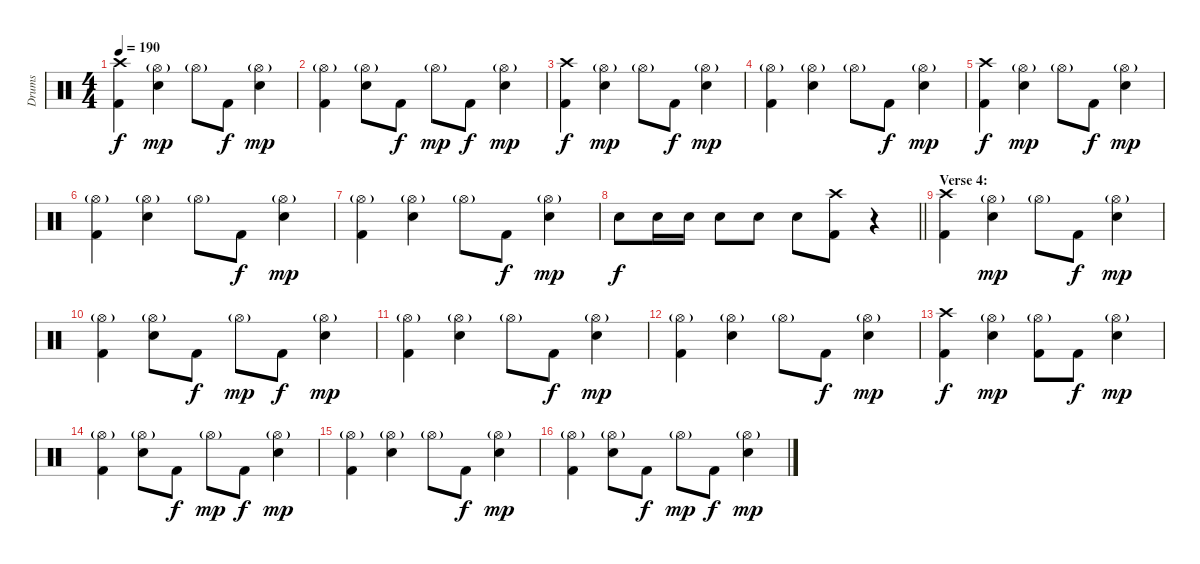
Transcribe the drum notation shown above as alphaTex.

\track ("Drums" "Drums") {instrument percussion}
\staff {score}
\articulation defaults
\ts (4 4)
\tempo 190
\clef neutral
\ks c
("Crash high (hit)" "Kick (hit) 2").4{dy f} ("Hi-Hat (open)"{g} "Electric Snare (hit)").4{dy mp} "Hi-Hat (open)"{g}.8 "Kick (hit) 2".8{dy f} ("Hi-Hat (open)"{g} "Electric Snare (hit)").4{dy mp} |
("Hi-Hat (open)"{g} "Kick (hit) 2").4 ("Hi-Hat (open)"{g} "Electric Snare (hit)").8 "Kick (hit) 2".8{dy f} "Hi-Hat (open)"{g}.8{dy mp} "Kick (hit) 2".8{dy f} ("Hi-Hat (open)"{g} "Electric Snare (hit)").4{dy mp} |
("Crash high (hit)" "Kick (hit) 2").4{dy f} ("Hi-Hat (open)"{g} "Electric Snare (hit)").4{dy mp} "Hi-Hat (open)"{g}.8 "Kick (hit) 2".8{dy f} ("Hi-Hat (open)"{g} "Electric Snare (hit)").4{dy mp} |
("Hi-Hat (open)"{g} "Kick (hit) 2").4 ("Hi-Hat (open)"{g} "Electric Snare (hit)").4 "Hi-Hat (open)"{g}.8 "Kick (hit) 2".8{dy f} ("Hi-Hat (open)"{g} "Electric Snare (hit)").4{dy mp} |
("Crash high (hit)" "Kick (hit) 2").4{dy f} ("Hi-Hat (open)"{g} "Electric Snare (hit)").4{dy mp} "Hi-Hat (open)"{g}.8 "Kick (hit) 2".8{dy f} ("Hi-Hat (open)"{g} "Electric Snare (hit)").4{dy mp} |
("Hi-Hat (open)"{g} "Kick (hit) 2").4 ("Hi-Hat (open)"{g} "Electric Snare (hit)").4 "Hi-Hat (open)"{g}.8 "Kick (hit) 2".8{dy f} ("Hi-Hat (open)"{g} "Electric Snare (hit)").4{dy mp} |
("Hi-Hat (open)"{g} "Kick (hit) 2").4 ("Hi-Hat (open)"{g} "Electric Snare (hit)").4 "Hi-Hat (open)"{g}.8 "Kick (hit) 2".8{dy f} ("Hi-Hat (open)"{g} "Electric Snare (hit)").4{dy mp} |
\barLineRight lightlight "Electric Snare (hit)".8{dy f} "Electric Snare (hit)".16 "Electric Snare (hit)".16 "Electric Snare (hit)".8 "Electric Snare (hit)".8 "Electric Snare (hit)".8
("Crash high (hit)" "Kick (hit) 2").8 r.4 |
\section ("" "Verse 4:")
("Crash high (hit)" "Kick (hit) 2").4 ("Hi-Hat (open)"{g} "Electric Snare (hit)").4{dy mp} "Hi-Hat (open)"{g}.8 "Kick (hit) 2".8{dy f} ("Hi-Hat (open)"{g} "Electric Snare (hit)").4{dy mp} |
("Hi-Hat (open)"{g} "Kick (hit) 2").4 ("Hi-Hat (open)"{g} "Electric Snare (hit)").8 "Kick (hit) 2".8{dy f} "Hi-Hat (open)"{g}.8{dy mp} "Kick (hit) 2".8{dy f} ("Hi-Hat (open)"{g} "Electric Snare (hit)").4{dy mp} |
("Hi-Hat (open)"{g} "Kick (hit) 2").4 ("Hi-Hat (open)"{g} "Electric Snare (hit)").4 "Hi-Hat (open)"{g}.8 "Kick (hit) 2".8{dy f} ("Hi-Hat (open)"{g} "Electric Snare (hit)").4{dy mp} |
("Hi-Hat (open)"{g} "Kick (hit) 2").4 ("Hi-Hat (open)"{g} "Electric Snare (hit)").4 "Hi-Hat (open)"{g}.8 "Kick (hit) 2".8{dy f} ("Hi-Hat (open)"{g} "Electric Snare (hit)").4{dy mp} |
("Crash high (hit)" "Kick (hit) 2").4{dy f} ("Hi-Hat (open)"{g} "Electric Snare (hit)").4{dy mp} ("Hi-Hat (open)"{g} "Kick (hit) 2").8 "Kick (hit) 2".8{dy f} ("Hi-Hat (open)"{g} "Electric Snare (hit)").4{dy mp} |
("Hi-Hat (open)"{g} "Kick (hit) 2").4 ("Hi-Hat (open)"{g} "Electric Snare (hit)").8 "Kick (hit) 2".8{dy f} "Hi-Hat (open)"{g}.8{dy mp} "Kick (hit) 2".8{dy f} ("Hi-Hat (open)"{g} "Electric Snare (hit)").4{dy mp} |
("Hi-Hat (open)"{g} "Kick (hit) 2").4 ("Hi-Hat (open)"{g} "Electric Snare (hit)").4 "Hi-Hat (open)"{g}.8 "Kick (hit) 2".8{dy f} ("Hi-Hat (open)"{g} "Electric Snare (hit)").4{dy mp} |
("Hi-Hat (open)"{g} "Kick (hit) 2").4 ("Hi-Hat (open)"{g} "Electric Snare (hit)").8 "Kick (hit) 2".8{dy f} "Hi-Hat (open)"{g}.8{dy mp} "Kick (hit) 2".8{dy f} ("Hi-Hat (open)"{g} "Electric Snare (hit)").4{dy mp}
